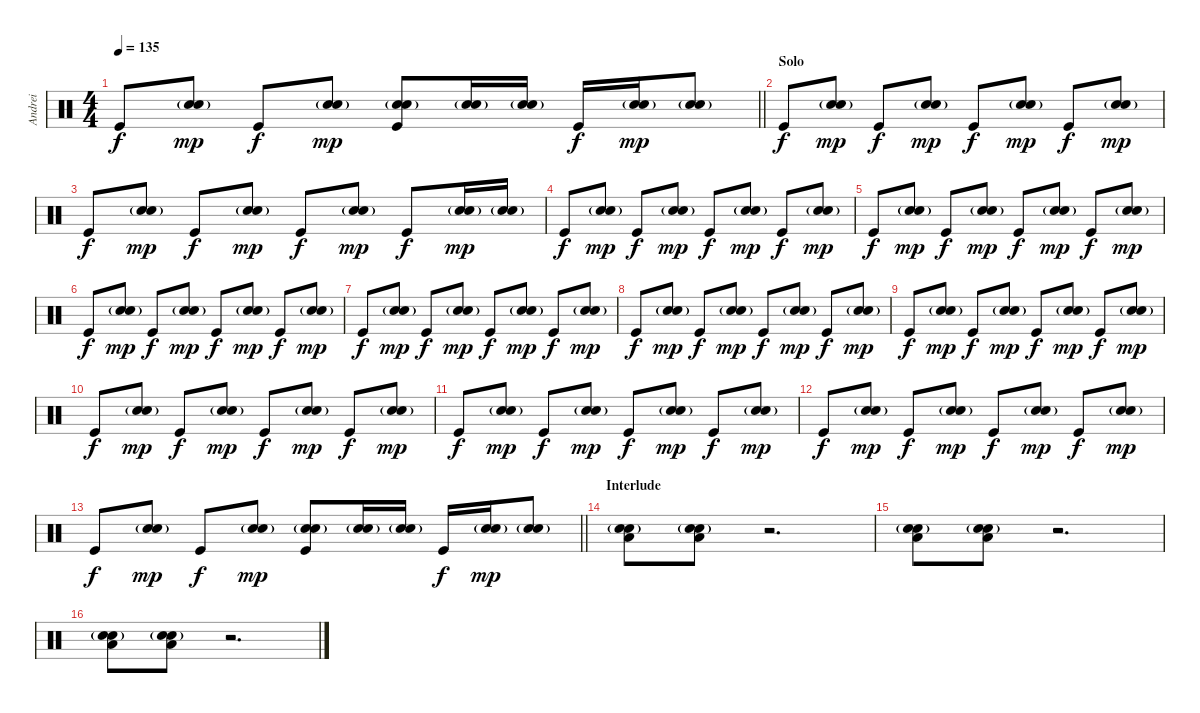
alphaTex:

\track ("Andrei" "Andrei") {instrument percussion}
\staff {score}
\articulation defaults
\ts (4 4)
\tempo 135
\clef neutral
\barLineRight lightlight
\ks c "Kick (hit)".8{dy f}
("Hand Clap (hit)"{g} "Snare (hit) 2").8{dy mp} "Kick (hit)".8{dy f} ("Hand Clap (hit)"{g} "Snare (hit) 2").8{dy mp} ("Hand Clap (hit)"{g} "Snare (hit) 2" "Kick (hit)").8 ("Hand Clap (hit)"{g} "Snare (hit) 2").16 ("Hand Clap (hit)"{g} "Snare (hit) 2").16 "Kick (hit)".16{dy f} ("Hand Clap (hit)"{g} "Snare (hit) 2").16{dy mp} ("Hand Clap (hit)"{g} "Snare (hit) 2").8 |
\section ("" "Solo")
"Kick (hit)".8{dy f} ("Hand Clap (hit)"{g} "Snare (hit) 2").8{dy mp} "Kick (hit)".8{dy f} ("Hand Clap (hit)"{g} "Snare (hit) 2").8{dy mp} "Kick (hit)".8{dy f} ("Hand Clap (hit)"{g} "Snare (hit) 2").8{dy mp} "Kick (hit)".8{dy f} ("Hand Clap (hit)"{g} "Snare (hit) 2").8{dy mp} |
"Kick (hit)".8{dy f} ("Hand Clap (hit)"{g} "Snare (hit) 2").8{dy mp} "Kick (hit)".8{dy f} ("Hand Clap (hit)"{g} "Snare (hit) 2").8{dy mp} "Kick (hit)".8{dy f} ("Hand Clap (hit)"{g} "Snare (hit) 2").8{dy mp} "Kick (hit)".8{dy f} ("Hand Clap (hit)"{g} "Snare (hit) 2").16{dy mp} ("Hand Clap (hit)"{g} "Snare (hit) 2").16 |
"Kick (hit)".8{dy f} ("Hand Clap (hit)"{g} "Snare (hit) 2").8{dy mp} "Kick (hit)".8{dy f} ("Hand Clap (hit)"{g} "Snare (hit) 2").8{dy mp} "Kick (hit)".8{dy f} ("Hand Clap (hit)"{g} "Snare (hit) 2").8{dy mp} "Kick (hit)".8{dy f} ("Hand Clap (hit)"{g} "Snare (hit) 2").8{dy mp} |
"Kick (hit)".8{dy f} ("Hand Clap (hit)"{g} "Snare (hit) 2").8{dy mp} "Kick (hit)".8{dy f} ("Hand Clap (hit)"{g} "Snare (hit) 2").8{dy mp} "Kick (hit)".8{dy f} ("Hand Clap (hit)"{g} "Snare (hit) 2").8{dy mp} "Kick (hit)".8{dy f} ("Hand Clap (hit)"{g} "Snare (hit) 2").8{dy mp} |
"Kick (hit)".8{dy f} ("Hand Clap (hit)"{g} "Snare (hit) 2").8{dy mp} "Kick (hit)".8{dy f} ("Hand Clap (hit)"{g} "Snare (hit) 2").8{dy mp} "Kick (hit)".8{dy f} ("Hand Clap (hit)"{g} "Snare (hit) 2").8{dy mp} "Kick (hit)".8{dy f} ("Hand Clap (hit)"{g} "Snare (hit) 2").8{dy mp} |
"Kick (hit)".8{dy f} ("Hand Clap (hit)"{g} "Snare (hit) 2").8{dy mp} "Kick (hit)".8{dy f} ("Hand Clap (hit)"{g} "Snare (hit) 2").8{dy mp} "Kick (hit)".8{dy f} ("Hand Clap (hit)"{g} "Snare (hit) 2").8{dy mp} "Kick (hit)".8{dy f} ("Hand Clap (hit)"{g} "Snare (hit) 2").8{dy mp} |
"Kick (hit)".8{dy f} ("Hand Clap (hit)"{g} "Snare (hit) 2").8{dy mp} "Kick (hit)".8{dy f} ("Hand Clap (hit)"{g} "Snare (hit) 2").8{dy mp} "Kick (hit)".8{dy f} ("Hand Clap (hit)"{g} "Snare (hit) 2").8{dy mp} "Kick (hit)".8{dy f} ("Hand Clap (hit)"{g} "Snare (hit) 2").8{dy mp} |
"Kick (hit)".8{dy f} ("Hand Clap (hit)"{g} "Snare (hit) 2").8{dy mp} "Kick (hit)".8{dy f} ("Hand Clap (hit)"{g} "Snare (hit) 2").8{dy mp} "Kick (hit)".8{dy f} ("Hand Clap (hit)"{g} "Snare (hit) 2").8{dy mp} "Kick (hit)".8{dy f} ("Hand Clap (hit)"{g} "Snare (hit) 2").8{dy mp} |
"Kick (hit)".8{dy f} ("Hand Clap (hit)"{g} "Snare (hit) 2").8{dy mp} "Kick (hit)".8{dy f} ("Hand Clap (hit)"{g} "Snare (hit) 2").8{dy mp} "Kick (hit)".8{dy f} ("Hand Clap (hit)"{g} "Snare (hit) 2").8{dy mp} "Kick (hit)".8{dy f} ("Hand Clap (hit)"{g} "Snare (hit) 2").8{dy mp} |
"Kick (hit)".8{dy f} ("Hand Clap (hit)"{g} "Snare (hit) 2").8{dy mp} "Kick (hit)".8{dy f} ("Hand Clap (hit)"{g} "Snare (hit) 2").8{dy mp} "Kick (hit)".8{dy f} ("Hand Clap (hit)"{g} "Snare (hit) 2").8{dy mp} "Kick (hit)".8{dy f} ("Hand Clap (hit)"{g} "Snare (hit) 2").8{dy mp} |
"Kick (hit)".8{dy f} ("Hand Clap (hit)"{g} "Snare (hit) 2").8{dy mp} "Kick (hit)".8{dy f} ("Hand Clap (hit)"{g} "Snare (hit) 2").8{dy mp} "Kick (hit)".8{dy f} ("Hand Clap (hit)"{g} "Snare (hit) 2").8{dy mp} "Kick (hit)".8{dy f} ("Hand Clap (hit)"{g} "Snare (hit) 2").8{dy mp} |
\barLineRight lightlight "Kick (hit)".8{dy f}
("Hand Clap (hit)"{g} "Snare (hit) 2").8{dy mp} "Kick (hit)".8{dy f} ("Hand Clap (hit)"{g} "Snare (hit) 2").8{dy mp} ("Hand Clap (hit)"{g} "Snare (hit) 2" "Kick (hit)").8 ("Hand Clap (hit)"{g} "Snare (hit) 2").16 ("Hand Clap (hit)"{g} "Snare (hit) 2").16 "Kick (hit)".16{dy f} ("Hand Clap (hit)"{g} "Snare (hit) 2").16{dy mp} ("Hand Clap (hit)"{g} "Snare (hit) 2").8 |
\section ("" "Interlude")
("Hand Clap (hit)"{g} "Snare (hit) 2" "Low Floor Tom (hit)").8 ("Hand Clap (hit)"{g} "Snare (hit) 2" "Low Floor Tom (hit)").8 r.2{d} |
("Hand Clap (hit)"{g} "Snare (hit) 2" "Low Floor Tom (hit)").8 ("Hand Clap (hit)"{g} "Snare (hit) 2" "Low Floor Tom (hit)").8 r.2{d} |
("Hand Clap (hit)"{g} "Snare (hit) 2" "Low Floor Tom (hit)").8 ("Hand Clap (hit)"{g} "Snare (hit) 2" "Low Floor Tom (hit)").8 r.2{d}
